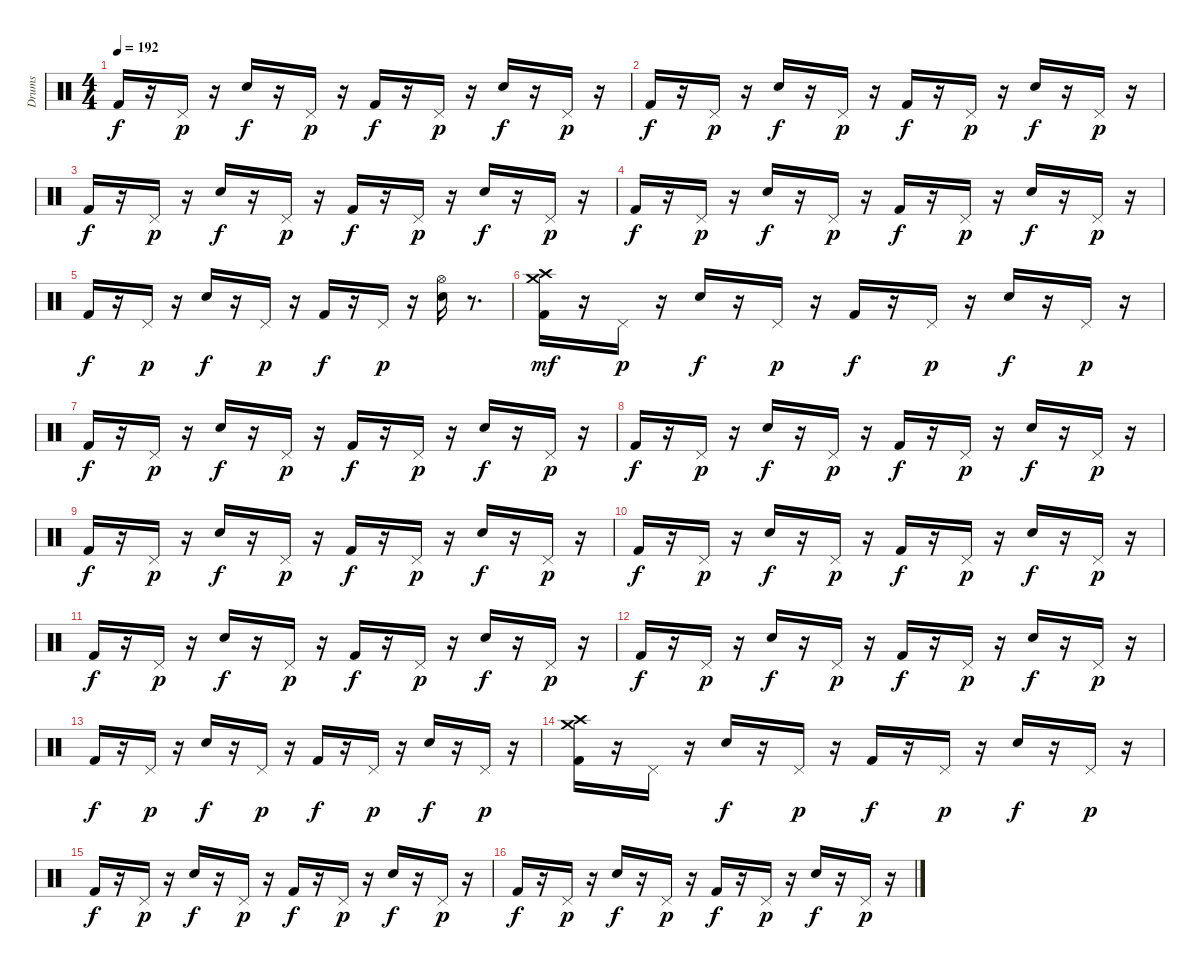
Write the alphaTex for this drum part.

\track ("Drums" "Drums") {instrument percussion}
\staff {score}
\articulation defaults
\ts (4 4)
\tempo 192
\clef neutral
\ks c "Kick (hit) 2".16{dy f}
r.16 "Pedal Hi-Hat (hit)".16{dy p} r.16 "Electric Snare (hit)".16{dy f} r.16 "Pedal Hi-Hat (hit)".16{dy p} r.16 "Kick (hit) 2".16{dy f} r.16 "Pedal Hi-Hat (hit)".16{dy p} r.16 "Electric Snare (hit)".16{dy f} r.16 "Pedal Hi-Hat (hit)".16{dy p} r.16 |
"Kick (hit) 2".16{dy f} r.16 "Pedal Hi-Hat (hit)".16{dy p} r.16 "Electric Snare (hit)".16{dy f} r.16 "Pedal Hi-Hat (hit)".16{dy p} r.16 "Kick (hit) 2".16{dy f} r.16 "Pedal Hi-Hat (hit)".16{dy p} r.16 "Electric Snare (hit)".16{dy f} r.16 "Pedal Hi-Hat (hit)".16{dy p} r.16 |
"Kick (hit) 2".16{dy f} r.16 "Pedal Hi-Hat (hit)".16{dy p} r.16 "Electric Snare (hit)".16{dy f} r.16 "Pedal Hi-Hat (hit)".16{dy p} r.16 "Kick (hit) 2".16{dy f} r.16 "Pedal Hi-Hat (hit)".16{dy p} r.16 "Electric Snare (hit)".16{dy f} r.16 "Pedal Hi-Hat (hit)".16{dy p} r.16 |
"Kick (hit) 2".16{dy f} r.16 "Pedal Hi-Hat (hit)".16{dy p} r.16 "Electric Snare (hit)".16{dy f} r.16 "Pedal Hi-Hat (hit)".16{dy p} r.16 "Kick (hit) 2".16{dy f} r.16 "Pedal Hi-Hat (hit)".16{dy p} r.16 "Electric Snare (hit)".16{dy f} r.16 "Pedal Hi-Hat (hit)".16{dy p} r.16 |
"Kick (hit) 2".16{dy f} r.16 "Pedal Hi-Hat (hit)".16{dy p} r.16 "Electric Snare (hit)".16{dy f} r.16 "Pedal Hi-Hat (hit)".16{dy p} r.16 "Kick (hit) 2".16{dy f} r.16 "Pedal Hi-Hat (hit)".16{dy p} r.16 ("Hi-Hat (open)" "Electric Snare (hit)").16 r.8{d} |
("Crash high (hit)" "Crash medium (hit)" "Kick (hit) 2").16{dy mf} r.16 "Pedal Hi-Hat (hit)".16{dy p} r.16 "Electric Snare (hit)".16{dy f} r.16 "Pedal Hi-Hat (hit)".16{dy p} r.16 "Kick (hit) 2".16{dy f} r.16 "Pedal Hi-Hat (hit)".16{dy p} r.16 "Electric Snare (hit)".16{dy f} r.16 "Pedal Hi-Hat (hit)".16{dy p} r.16 |
"Kick (hit) 2".16{dy f} r.16 "Pedal Hi-Hat (hit)".16{dy p} r.16 "Electric Snare (hit)".16{dy f} r.16 "Pedal Hi-Hat (hit)".16{dy p} r.16 "Kick (hit) 2".16{dy f} r.16 "Pedal Hi-Hat (hit)".16{dy p} r.16 "Electric Snare (hit)".16{dy f} r.16 "Pedal Hi-Hat (hit)".16{dy p} r.16 |
"Kick (hit) 2".16{dy f} r.16 "Pedal Hi-Hat (hit)".16{dy p} r.16 "Electric Snare (hit)".16{dy f} r.16 "Pedal Hi-Hat (hit)".16{dy p} r.16 "Kick (hit) 2".16{dy f} r.16 "Pedal Hi-Hat (hit)".16{dy p} r.16 "Electric Snare (hit)".16{dy f} r.16 "Pedal Hi-Hat (hit)".16{dy p} r.16 |
"Kick (hit) 2".16{dy f} r.16 "Pedal Hi-Hat (hit)".16{dy p} r.16 "Electric Snare (hit)".16{dy f} r.16 "Pedal Hi-Hat (hit)".16{dy p} r.16 "Kick (hit) 2".16{dy f} r.16 "Pedal Hi-Hat (hit)".16{dy p} r.16 "Electric Snare (hit)".16{dy f} r.16 "Pedal Hi-Hat (hit)".16{dy p} r.16 |
"Kick (hit) 2".16{dy f} r.16 "Pedal Hi-Hat (hit)".16{dy p} r.16 "Electric Snare (hit)".16{dy f} r.16 "Pedal Hi-Hat (hit)".16{dy p} r.16 "Kick (hit) 2".16{dy f} r.16 "Pedal Hi-Hat (hit)".16{dy p} r.16 "Electric Snare (hit)".16{dy f} r.16 "Pedal Hi-Hat (hit)".16{dy p} r.16 |
"Kick (hit) 2".16{dy f} r.16 "Pedal Hi-Hat (hit)".16{dy p} r.16 "Electric Snare (hit)".16{dy f} r.16 "Pedal Hi-Hat (hit)".16{dy p} r.16 "Kick (hit) 2".16{dy f} r.16 "Pedal Hi-Hat (hit)".16{dy p} r.16 "Electric Snare (hit)".16{dy f} r.16 "Pedal Hi-Hat (hit)".16{dy p} r.16 |
"Kick (hit) 2".16{dy f} r.16 "Pedal Hi-Hat (hit)".16{dy p} r.16 "Electric Snare (hit)".16{dy f} r.16 "Pedal Hi-Hat (hit)".16{dy p} r.16 "Kick (hit) 2".16{dy f} r.16 "Pedal Hi-Hat (hit)".16{dy p} r.16 "Electric Snare (hit)".16{dy f} r.16 "Pedal Hi-Hat (hit)".16{dy p} r.16 |
"Kick (hit) 2".16{dy f} r.16 "Pedal Hi-Hat (hit)".16{dy p} r.16 "Electric Snare (hit)".16{dy f} r.16 "Pedal Hi-Hat (hit)".16{dy p} r.16 "Kick (hit) 2".16{dy f} r.16 "Pedal Hi-Hat (hit)".16{dy p} r.16 "Electric Snare (hit)".16{dy f} r.16 "Pedal Hi-Hat (hit)".16{dy p} r.16 |
("Crash high (hit)" "Crash medium (hit)" "Kick (hit) 2").16 r.16 "Pedal Hi-Hat (hit)".16 r.16 "Electric Snare (hit)".16{dy f} r.16 "Pedal Hi-Hat (hit)".16{dy p} r.16 "Kick (hit) 2".16{dy f} r.16 "Pedal Hi-Hat (hit)".16{dy p} r.16 "Electric Snare (hit)".16{dy f} r.16 "Pedal Hi-Hat (hit)".16{dy p} r.16 |
"Kick (hit) 2".16{dy f} r.16 "Pedal Hi-Hat (hit)".16{dy p} r.16 "Electric Snare (hit)".16{dy f} r.16 "Pedal Hi-Hat (hit)".16{dy p} r.16 "Kick (hit) 2".16{dy f} r.16 "Pedal Hi-Hat (hit)".16{dy p} r.16 "Electric Snare (hit)".16{dy f} r.16 "Pedal Hi-Hat (hit)".16{dy p} r.16 |
"Kick (hit) 2".16{dy f} r.16 "Pedal Hi-Hat (hit)".16{dy p} r.16 "Electric Snare (hit)".16{dy f} r.16 "Pedal Hi-Hat (hit)".16{dy p} r.16 "Kick (hit) 2".16{dy f} r.16 "Pedal Hi-Hat (hit)".16{dy p} r.16 "Electric Snare (hit)".16{dy f} r.16 "Pedal Hi-Hat (hit)".16{dy p} r.16
